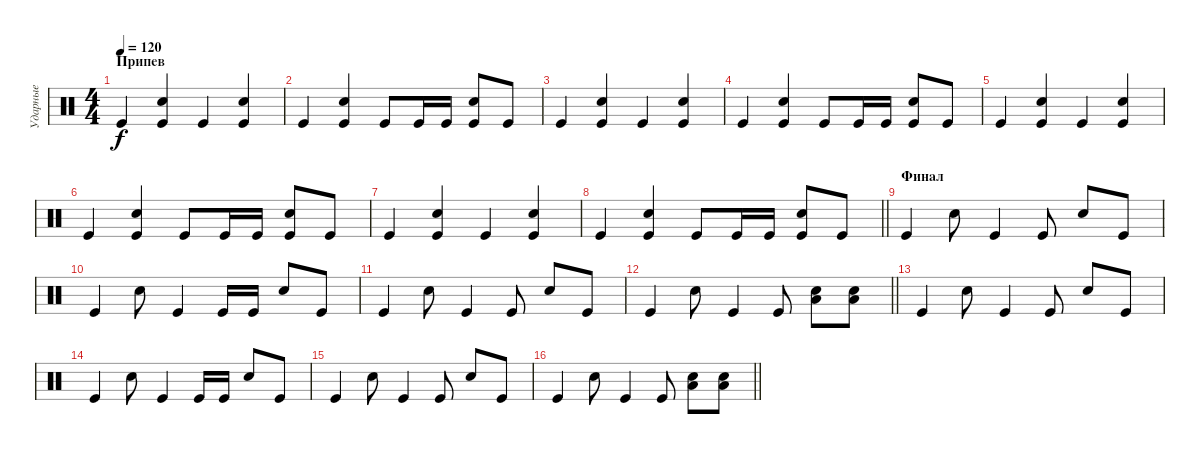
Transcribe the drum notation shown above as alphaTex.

\track ("Ударные" "Ударные") {instrument percussion}
\staff {score}
\articulation defaults
\ts (4 4)
\section ("" "Припев")
\tempo 120
\clef neutral
\ks c "Kick (hit)".4{dy f}
("Kick (hit)" "Snare (hit) 2").4 "Kick (hit)".4 ("Kick (hit)" "Snare (hit) 2").4 |
"Kick (hit)".4 ("Kick (hit)" "Snare (hit) 2").4 "Kick (hit)".8 "Kick (hit)".16 "Kick (hit)".16 ("Kick (hit)" "Snare (hit) 2").8 "Kick (hit)".8 |
"Kick (hit)".4 ("Kick (hit)" "Snare (hit) 2").4 "Kick (hit)".4 ("Kick (hit)" "Snare (hit) 2").4 |
"Kick (hit)".4 ("Kick (hit)" "Snare (hit) 2").4 "Kick (hit)".8 "Kick (hit)".16 "Kick (hit)".16 ("Kick (hit)" "Snare (hit) 2").8 "Kick (hit)".8 |
"Kick (hit)".4 ("Kick (hit)" "Snare (hit) 2").4 "Kick (hit)".4 ("Kick (hit)" "Snare (hit) 2").4 |
"Kick (hit)".4 ("Kick (hit)" "Snare (hit) 2").4 "Kick (hit)".8 "Kick (hit)".16 "Kick (hit)".16 ("Kick (hit)" "Snare (hit) 2").8 "Kick (hit)".8 |
"Kick (hit)".4 ("Kick (hit)" "Snare (hit) 2").4 "Kick (hit)".4 ("Kick (hit)" "Snare (hit) 2").4 |
\barLineRight lightlight "Kick (hit)".4
("Kick (hit)" "Snare (hit) 2").4 "Kick (hit)".8 "Kick (hit)".16 "Kick (hit)".16 ("Kick (hit)" "Snare (hit) 2").8 "Kick (hit)".8 |
\section ("" "Финал")
"Kick (hit)".4 "Snare (hit) 2".8 "Kick (hit)".4 "Kick (hit)".8 "Snare (hit) 2".8 "Kick (hit)".8 |
"Kick (hit)".4 "Snare (hit) 2".8 "Kick (hit)".4 "Kick (hit)".16 "Kick (hit)".16 "Snare (hit) 2".8 "Kick (hit)".8 |
"Kick (hit)".4 "Snare (hit) 2".8 "Kick (hit)".4 "Kick (hit)".8 "Snare (hit) 2".8 "Kick (hit)".8 |
\barLineRight lightlight "Kick (hit)".4 "Snare (hit) 2".8 "Kick (hit)".4 "Kick (hit)".8
("Snare (hit) 2" "Low Floor Tom (hit)").8 ("Snare (hit) 2" "Low Floor Tom (hit)").8 |
"Kick (hit)".4 "Snare (hit) 2".8 "Kick (hit)".4 "Kick (hit)".8 "Snare (hit) 2".8 "Kick (hit)".8 |
"Kick (hit)".4 "Snare (hit) 2".8 "Kick (hit)".4 "Kick (hit)".16 "Kick (hit)".16 "Snare (hit) 2".8 "Kick (hit)".8 |
"Kick (hit)".4 "Snare (hit) 2".8 "Kick (hit)".4 "Kick (hit)".8 "Snare (hit) 2".8 "Kick (hit)".8 |
\barLineRight lightlight "Kick (hit)".4 "Snare (hit) 2".8 "Kick (hit)".4 "Kick (hit)".8
("Snare (hit) 2" "Low Floor Tom (hit)").8 ("Snare (hit) 2" "Low Floor Tom (hit)").8
